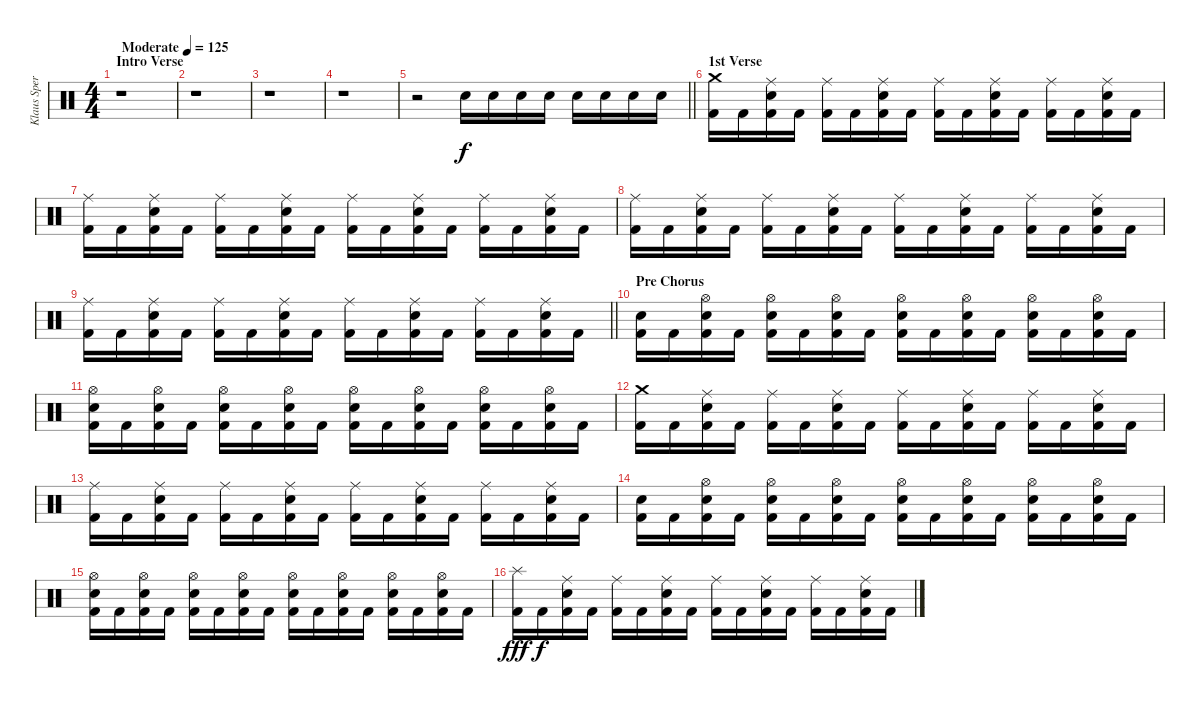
\track ("Klaus Sperling" "Klaus Sper") {instrument percussion}
\staff {score}
\articulation defaults
\ts (4 4)
\section ("" "Intro Verse")
\tempo (125 "Moderate")
\clef neutral
\ks c
r.1{dy f} |
r.1 |
r.1 |
r.1 |
\barLineRight lightlight
r.2 "Electric Snare (hit)".16 "Electric Snare (hit)".16 "Electric Snare (hit)".16 "Electric Snare (hit)".16 "Electric Snare (hit)".16 "Electric Snare (hit)".16 "Electric Snare (hit)".16 "Electric Snare (hit)".16 |
\section ("" "1st Verse")
("Crash medium (hit)" "Kick (hit) 2").16 "Kick (hit) 2".16 ("Ride (middle)" "Electric Snare (hit)" "Kick (hit) 2").16 "Kick (hit) 2".16 ("Ride (middle)" "Kick (hit) 2").16 "Kick (hit) 2".16 ("Ride (middle)" "Electric Snare (hit)" "Kick (hit) 2").16 "Kick (hit) 2".16 ("Ride (middle)" "Kick (hit) 2").16 "Kick (hit) 2".16 ("Ride (middle)" "Electric Snare (hit)" "Kick (hit) 2").16 "Kick (hit) 2".16 ("Ride (middle)" "Kick (hit) 2").16 "Kick (hit) 2".16 ("Ride (middle)" "Electric Snare (hit)" "Kick (hit) 2").16 "Kick (hit) 2".16 |
("Ride (middle)" "Kick (hit) 2").16 "Kick (hit) 2".16 ("Ride (middle)" "Electric Snare (hit)" "Kick (hit) 2").16 "Kick (hit) 2".16 ("Ride (middle)" "Kick (hit) 2").16 "Kick (hit) 2".16 ("Ride (middle)" "Electric Snare (hit)" "Kick (hit) 2").16 "Kick (hit) 2".16 ("Ride (middle)" "Kick (hit) 2").16 "Kick (hit) 2".16 ("Ride (middle)" "Electric Snare (hit)" "Kick (hit) 2").16 "Kick (hit) 2".16 ("Ride (middle)" "Kick (hit) 2").16 "Kick (hit) 2".16 ("Ride (middle)" "Electric Snare (hit)" "Kick (hit) 2").16 "Kick (hit) 2".16 |
("Ride (middle)" "Kick (hit) 2").16 "Kick (hit) 2".16 ("Ride (middle)" "Electric Snare (hit)" "Kick (hit) 2").16 "Kick (hit) 2".16 ("Ride (middle)" "Kick (hit) 2").16 "Kick (hit) 2".16 ("Ride (middle)" "Electric Snare (hit)" "Kick (hit) 2").16 "Kick (hit) 2".16 ("Ride (middle)" "Kick (hit) 2").16 "Kick (hit) 2".16 ("Ride (middle)" "Electric Snare (hit)" "Kick (hit) 2").16 "Kick (hit) 2".16 ("Ride (middle)" "Kick (hit) 2").16 "Kick (hit) 2".16 ("Ride (middle)" "Electric Snare (hit)" "Kick (hit) 2").16 "Kick (hit) 2".16 |
\barLineRight lightlight
("Ride (middle)" "Kick (hit) 2").16 "Kick (hit) 2".16 ("Ride (middle)" "Electric Snare (hit)" "Kick (hit) 2").16 "Kick (hit) 2".16 ("Ride (middle)" "Kick (hit) 2").16 "Kick (hit) 2".16 ("Ride (middle)" "Electric Snare (hit)" "Kick (hit) 2").16 "Kick (hit) 2".16 ("Ride (middle)" "Kick (hit) 2").16 "Kick (hit) 2".16 ("Ride (middle)" "Electric Snare (hit)" "Kick (hit) 2").16 "Kick (hit) 2".16 ("Ride (middle)" "Kick (hit) 2").16 "Kick (hit) 2".16 ("Ride (middle)" "Electric Snare (hit)" "Kick (hit) 2").16 "Kick (hit) 2".16 |
\section ("" "Pre Chorus")
("Electric Snare (hit)" "Kick (hit) 2").16 "Kick (hit) 2".16 ("Hi-Hat (open)" "Electric Snare (hit)" "Kick (hit) 2").16 "Kick (hit) 2".16 ("Hi-Hat (open)" "Electric Snare (hit)" "Kick (hit) 2").16 "Kick (hit) 2".16 ("Hi-Hat (open)" "Electric Snare (hit)" "Kick (hit) 2").16 "Kick (hit) 2".16 ("Hi-Hat (open)" "Electric Snare (hit)" "Kick (hit) 2").16 "Kick (hit) 2".16 ("Hi-Hat (open)" "Electric Snare (hit)" "Kick (hit) 2").16 "Kick (hit) 2".16 ("Hi-Hat (open)" "Electric Snare (hit)" "Kick (hit) 2").16 "Kick (hit) 2".16 ("Hi-Hat (open)" "Electric Snare (hit)" "Kick (hit) 2").16 "Kick (hit) 2".16 |
("Hi-Hat (open)" "Electric Snare (hit)" "Kick (hit) 2").16 "Kick (hit) 2".16 ("Hi-Hat (open)" "Electric Snare (hit)" "Kick (hit) 2").16 "Kick (hit) 2".16 ("Hi-Hat (open)" "Electric Snare (hit)" "Kick (hit) 2").16 "Kick (hit) 2".16 ("Hi-Hat (open)" "Electric Snare (hit)" "Kick (hit) 2").16 "Kick (hit) 2".16 ("Hi-Hat (open)" "Electric Snare (hit)" "Kick (hit) 2").16 "Kick (hit) 2".16 ("Hi-Hat (open)" "Electric Snare (hit)" "Kick (hit) 2").16 "Kick (hit) 2".16 ("Hi-Hat (open)" "Electric Snare (hit)" "Kick (hit) 2").16 "Kick (hit) 2".16 ("Hi-Hat (open)" "Electric Snare (hit)" "Kick (hit) 2").16 "Kick (hit) 2".16 |
("Crash medium (hit)" "Kick (hit) 2").16 "Kick (hit) 2".16 ("Ride (middle)" "Electric Snare (hit)" "Kick (hit) 2").16 "Kick (hit) 2".16 ("Ride (middle)" "Kick (hit) 2").16 "Kick (hit) 2".16 ("Ride (middle)" "Electric Snare (hit)" "Kick (hit) 2").16 "Kick (hit) 2".16 ("Ride (middle)" "Kick (hit) 2").16 "Kick (hit) 2".16 ("Ride (middle)" "Electric Snare (hit)" "Kick (hit) 2").16 "Kick (hit) 2".16 ("Ride (middle)" "Kick (hit) 2").16 "Kick (hit) 2".16 ("Ride (middle)" "Electric Snare (hit)" "Kick (hit) 2").16 "Kick (hit) 2".16 |
("Ride (middle)" "Kick (hit) 2").16 "Kick (hit) 2".16 ("Ride (middle)" "Electric Snare (hit)" "Kick (hit) 2").16 "Kick (hit) 2".16 ("Ride (middle)" "Kick (hit) 2").16 "Kick (hit) 2".16 ("Ride (middle)" "Electric Snare (hit)" "Kick (hit) 2").16 "Kick (hit) 2".16 ("Ride (middle)" "Kick (hit) 2").16 "Kick (hit) 2".16 ("Ride (middle)" "Electric Snare (hit)" "Kick (hit) 2").16 "Kick (hit) 2".16 ("Ride (middle)" "Kick (hit) 2").16 "Kick (hit) 2".16 ("Ride (middle)" "Electric Snare (hit)" "Kick (hit) 2").16 "Kick (hit) 2".16 |
("Electric Snare (hit)" "Kick (hit) 2").16 "Kick (hit) 2".16 ("Hi-Hat (open)" "Electric Snare (hit)" "Kick (hit) 2").16 "Kick (hit) 2".16 ("Hi-Hat (open)" "Electric Snare (hit)" "Kick (hit) 2").16 "Kick (hit) 2".16 ("Hi-Hat (open)" "Electric Snare (hit)" "Kick (hit) 2").16 "Kick (hit) 2".16 ("Hi-Hat (open)" "Electric Snare (hit)" "Kick (hit) 2").16 "Kick (hit) 2".16 ("Hi-Hat (open)" "Electric Snare (hit)" "Kick (hit) 2").16 "Kick (hit) 2".16 ("Hi-Hat (open)" "Electric Snare (hit)" "Kick (hit) 2").16 "Kick (hit) 2".16 ("Hi-Hat (open)" "Electric Snare (hit)" "Kick (hit) 2").16 "Kick (hit) 2".16 |
("Hi-Hat (open)" "Electric Snare (hit)" "Kick (hit) 2").16 "Kick (hit) 2".16 ("Hi-Hat (open)" "Electric Snare (hit)" "Kick (hit) 2").16 "Kick (hit) 2".16 ("Hi-Hat (open)" "Electric Snare (hit)" "Kick (hit) 2").16 "Kick (hit) 2".16 ("Hi-Hat (open)" "Electric Snare (hit)" "Kick (hit) 2").16 "Kick (hit) 2".16 ("Hi-Hat (open)" "Electric Snare (hit)" "Kick (hit) 2").16 "Kick (hit) 2".16 ("Hi-Hat (open)" "Electric Snare (hit)" "Kick (hit) 2").16 "Kick (hit) 2".16 ("Hi-Hat (open)" "Electric Snare (hit)" "Kick (hit) 2").16 "Kick (hit) 2".16 ("Hi-Hat (open)" "Electric Snare (hit)" "Kick (hit) 2").16 "Kick (hit) 2".16 |
("Splash (hit)" "Kick (hit) 2").16{dy fff} "Kick (hit) 2".16{dy f} ("Ride (middle)" "Electric Snare (hit)" "Kick (hit) 2").16 "Kick (hit) 2".16 ("Ride (middle)" "Kick (hit) 2").16 "Kick (hit) 2".16 ("Ride (middle)" "Electric Snare (hit)" "Kick (hit) 2").16 "Kick (hit) 2".16 ("Ride (middle)" "Kick (hit) 2").16 "Kick (hit) 2".16 ("Ride (middle)" "Electric Snare (hit)" "Kick (hit) 2").16 "Kick (hit) 2".16 ("Ride (middle)" "Kick (hit) 2").16 "Kick (hit) 2".16 ("Ride (middle)" "Electric Snare (hit)" "Kick (hit) 2").16 "Kick (hit) 2".16
